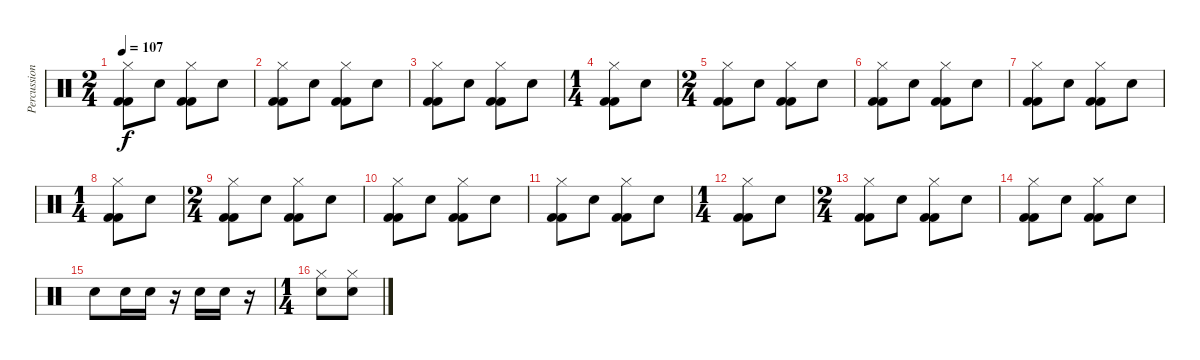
\track ("Percussioni" "Percussion") {instrument percussion}
\staff {score}
\articulation defaults
\ts (2 4)
\tempo 107
\clef neutral
\ks c
("Hi-Hat (closed)" "Kick (hit) 2" "Kick (hit) 2").8{dy f} "Electric Snare (hit)".8 ("Hi-Hat (closed)" "Kick (hit) 2" "Kick (hit) 2").8 "Electric Snare (hit)".8 |
("Hi-Hat (closed)" "Kick (hit) 2" "Kick (hit) 2").8 "Electric Snare (hit)".8 ("Hi-Hat (closed)" "Kick (hit) 2" "Kick (hit) 2").8 "Electric Snare (hit)".8 |
("Hi-Hat (closed)" "Kick (hit) 2" "Kick (hit) 2").8 "Electric Snare (hit)".8 ("Hi-Hat (closed)" "Kick (hit) 2" "Kick (hit) 2").8 "Electric Snare (hit)".8 |
\ts (1 4)
("Hi-Hat (closed)" "Kick (hit) 2" "Kick (hit) 2").8 "Electric Snare (hit)".8 |
\ts (2 4)
("Hi-Hat (closed)" "Kick (hit) 2" "Kick (hit) 2").8 "Electric Snare (hit)".8 ("Hi-Hat (closed)" "Kick (hit) 2" "Kick (hit) 2").8 "Electric Snare (hit)".8 |
("Hi-Hat (closed)" "Kick (hit) 2" "Kick (hit) 2").8 "Electric Snare (hit)".8 ("Hi-Hat (closed)" "Kick (hit) 2" "Kick (hit) 2").8 "Electric Snare (hit)".8 |
("Hi-Hat (closed)" "Kick (hit) 2" "Kick (hit) 2").8 "Electric Snare (hit)".8 ("Hi-Hat (closed)" "Kick (hit) 2" "Kick (hit) 2").8 "Electric Snare (hit)".8 |
\ts (1 4)
("Hi-Hat (closed)" "Kick (hit) 2" "Kick (hit) 2").8 "Electric Snare (hit)".8 |
\ts (2 4)
("Hi-Hat (closed)" "Kick (hit) 2" "Kick (hit) 2").8 "Electric Snare (hit)".8 ("Hi-Hat (closed)" "Kick (hit) 2" "Kick (hit) 2").8 "Electric Snare (hit)".8 |
("Hi-Hat (closed)" "Kick (hit) 2" "Kick (hit) 2").8 "Electric Snare (hit)".8 ("Hi-Hat (closed)" "Kick (hit) 2" "Kick (hit) 2").8 "Electric Snare (hit)".8 |
("Hi-Hat (closed)" "Kick (hit) 2" "Kick (hit) 2").8 "Electric Snare (hit)".8 ("Hi-Hat (closed)" "Kick (hit) 2" "Kick (hit) 2").8 "Electric Snare (hit)".8 |
\ts (1 4)
("Hi-Hat (closed)" "Kick (hit) 2" "Kick (hit) 2").8 "Electric Snare (hit)".8 |
\ts (2 4)
("Hi-Hat (closed)" "Kick (hit) 2" "Kick (hit) 2").8 "Electric Snare (hit)".8 ("Hi-Hat (closed)" "Kick (hit) 2" "Kick (hit) 2").8 "Electric Snare (hit)".8 |
("Hi-Hat (closed)" "Kick (hit) 2" "Kick (hit) 2").8 "Electric Snare (hit)".8 ("Hi-Hat (closed)" "Kick (hit) 2" "Kick (hit) 2").8 "Electric Snare (hit)".8 |
"Electric Snare (hit)".8 "Electric Snare (hit)".16 "Electric Snare (hit)".16 r.16 "Electric Snare (hit)".16 "Electric Snare (hit)".16 r.16 |
\ts (1 4)
("Hi-Hat (closed)" "Electric Snare (hit)").8 ("Hi-Hat (closed)" "Electric Snare (hit)").8
